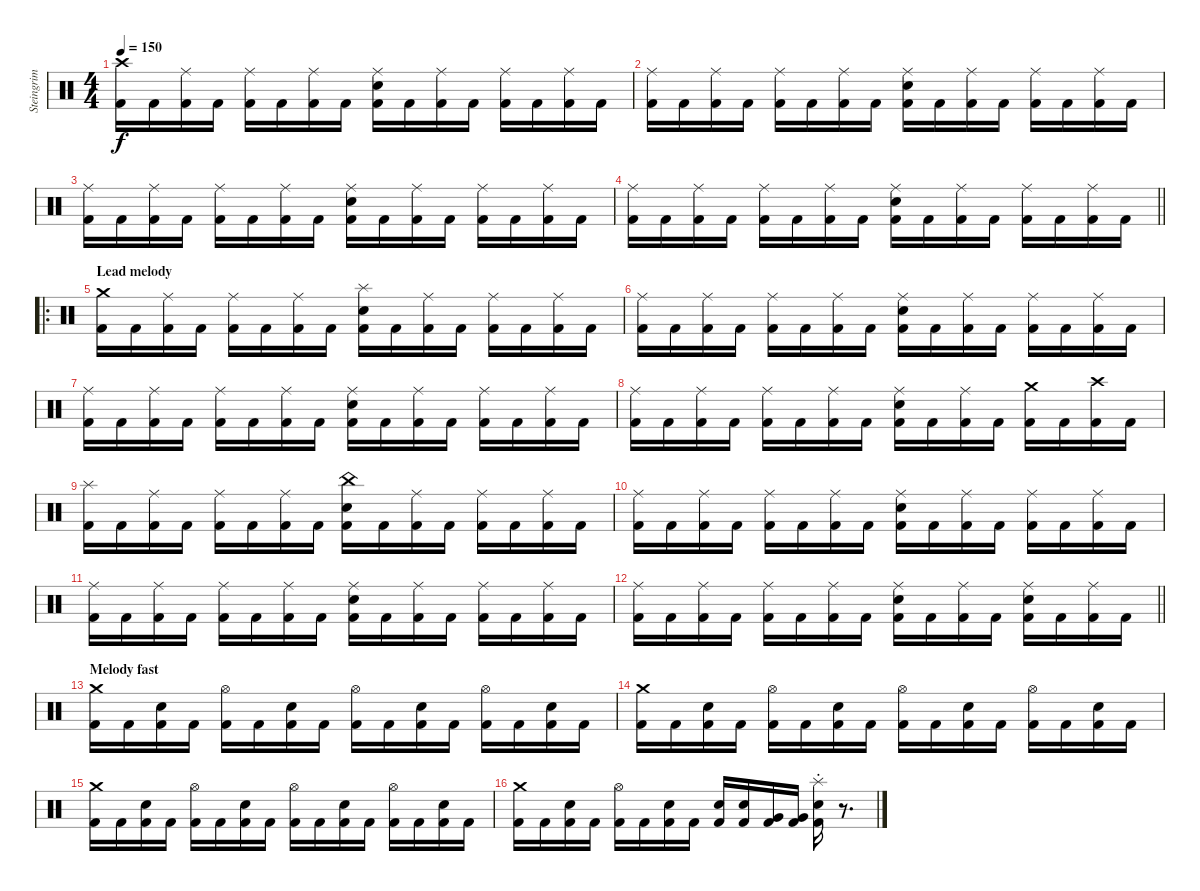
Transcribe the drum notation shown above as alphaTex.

\track ("Steingrim" "Steingrim") {instrument percussion}
\staff {score}
\articulation defaults
\ts (4 4)
\tempo 150
\clef neutral
\ks c
("Crash high (hit)" "Kick (hit) 2").16{dy f} "Kick (hit) 2".16 ("Ride (middle)" "Kick (hit) 2").16 "Kick (hit) 2".16 ("Ride (middle)" "Kick (hit) 2").16 "Kick (hit) 2".16 ("Ride (middle)" "Kick (hit) 2").16 "Kick (hit) 2".16 ("Ride (middle)" "Snare (hit) 2" "Kick (hit) 2").16 "Kick (hit) 2".16 ("Ride (middle)" "Kick (hit) 2").16 "Kick (hit) 2".16 ("Ride (middle)" "Kick (hit) 2").16 "Kick (hit) 2".16 ("Ride (middle)" "Kick (hit) 2").16 "Kick (hit) 2".16 |
("Ride (middle)" "Kick (hit) 2").16 "Kick (hit) 2".16 ("Ride (middle)" "Kick (hit) 2").16 "Kick (hit) 2".16 ("Ride (middle)" "Kick (hit) 2").16 "Kick (hit) 2".16 ("Ride (middle)" "Kick (hit) 2").16 "Kick (hit) 2".16 ("Ride (middle)" "Snare (hit) 2" "Kick (hit) 2").16 "Kick (hit) 2".16 ("Ride (middle)" "Kick (hit) 2").16 "Kick (hit) 2".16 ("Ride (middle)" "Kick (hit) 2").16 "Kick (hit) 2".16 ("Ride (middle)" "Kick (hit) 2").16 "Kick (hit) 2".16 |
("Ride (middle)" "Kick (hit) 2").16 "Kick (hit) 2".16 ("Ride (middle)" "Kick (hit) 2").16 "Kick (hit) 2".16 ("Ride (middle)" "Kick (hit) 2").16 "Kick (hit) 2".16 ("Ride (middle)" "Kick (hit) 2").16 "Kick (hit) 2".16 ("Ride (middle)" "Snare (hit) 2" "Kick (hit) 2").16 "Kick (hit) 2".16 ("Ride (middle)" "Kick (hit) 2").16 "Kick (hit) 2".16 ("Ride (middle)" "Kick (hit) 2").16 "Kick (hit) 2".16 ("Ride (middle)" "Kick (hit) 2").16 "Kick (hit) 2".16 |
\barLineRight lightlight
("Ride (middle)" "Kick (hit) 2").16 "Kick (hit) 2".16 ("Ride (middle)" "Kick (hit) 2").16 "Kick (hit) 2".16 ("Ride (middle)" "Kick (hit) 2").16 "Kick (hit) 2".16 ("Ride (middle)" "Kick (hit) 2").16 "Kick (hit) 2".16 ("Ride (middle)" "Snare (hit) 2" "Kick (hit) 2").16 "Kick (hit) 2".16 ("Ride (middle)" "Kick (hit) 2").16 "Kick (hit) 2".16 ("Ride (middle)" "Kick (hit) 2").16 "Kick (hit) 2".16 ("Ride (middle)" "Kick (hit) 2").16 "Kick (hit) 2".16 |
\ro
\section ("" "Lead melody")
("Crash medium (hit)" "Kick (hit) 2").16 "Kick (hit) 2".16 ("Ride (middle)" "Kick (hit) 2").16 "Kick (hit) 2".16 ("Ride (middle)" "Kick (hit) 2").16 "Kick (hit) 2".16 ("Ride (middle)" "Kick (hit) 2").16 "Kick (hit) 2".16 ("Splash (hit)" "Snare (hit) 2" "Kick (hit) 2").16 "Kick (hit) 2".16 ("Ride (middle)" "Kick (hit) 2").16 "Kick (hit) 2".16 ("Ride (middle)" "Kick (hit) 2").16 "Kick (hit) 2".16 ("Ride (middle)" "Kick (hit) 2").16 "Kick (hit) 2".16 |
("Ride (middle)" "Kick (hit) 2").16 "Kick (hit) 2".16 ("Ride (middle)" "Kick (hit) 2").16 "Kick (hit) 2".16 ("Ride (middle)" "Kick (hit) 2").16 "Kick (hit) 2".16 ("Ride (middle)" "Kick (hit) 2").16 "Kick (hit) 2".16 ("Ride (middle)" "Snare (hit) 2" "Kick (hit) 2").16 "Kick (hit) 2".16 ("Ride (middle)" "Kick (hit) 2").16 "Kick (hit) 2".16 ("Ride (middle)" "Kick (hit) 2").16 "Kick (hit) 2".16 ("Ride (middle)" "Kick (hit) 2").16 "Kick (hit) 2".16 |
("Ride (middle)" "Kick (hit) 2").16 "Kick (hit) 2".16 ("Ride (middle)" "Kick (hit) 2").16 "Kick (hit) 2".16 ("Ride (middle)" "Kick (hit) 2").16 "Kick (hit) 2".16 ("Ride (middle)" "Kick (hit) 2").16 "Kick (hit) 2".16 ("Ride (middle)" "Snare (hit) 2" "Kick (hit) 2").16 "Kick (hit) 2".16 ("Ride (middle)" "Kick (hit) 2").16 "Kick (hit) 2".16 ("Ride (middle)" "Kick (hit) 2").16 "Kick (hit) 2".16 ("Ride (middle)" "Kick (hit) 2").16 "Kick (hit) 2".16 |
("Ride (middle)" "Kick (hit) 2").16 "Kick (hit) 2".16 ("Ride (middle)" "Kick (hit) 2").16 "Kick (hit) 2".16 ("Ride (middle)" "Kick (hit) 2").16 "Kick (hit) 2".16 ("Ride (middle)" "Kick (hit) 2").16 "Kick (hit) 2".16 ("Ride (middle)" "Snare (hit) 2" "Kick (hit) 2").16 "Kick (hit) 2".16 ("Ride (middle)" "Kick (hit) 2").16 "Kick (hit) 2".16 ("Crash medium (hit)" "Kick (hit) 2").16 "Kick (hit) 2".16 ("Crash high (hit)" "Kick (hit) 2").16 "Kick (hit) 2".16 |
("Splash (hit)" "Kick (hit) 2").16 "Kick (hit) 2".16 ("Ride (middle)" "Kick (hit) 2").16 "Kick (hit) 2".16 ("Ride (middle)" "Kick (hit) 2").16 "Kick (hit) 2".16 ("Ride (middle)" "Kick (hit) 2").16 "Kick (hit) 2".16 ("China (hit)" "Snare (hit) 2" "Kick (hit) 2").16 "Kick (hit) 2".16 ("Ride (middle)" "Kick (hit) 2").16 "Kick (hit) 2".16 ("Ride (middle)" "Kick (hit) 2").16 "Kick (hit) 2".16 ("Ride (middle)" "Kick (hit) 2").16 "Kick (hit) 2".16 |
("Ride (middle)" "Kick (hit) 2").16 "Kick (hit) 2".16 ("Ride (middle)" "Kick (hit) 2").16 "Kick (hit) 2".16 ("Ride (middle)" "Kick (hit) 2").16 "Kick (hit) 2".16 ("Ride (middle)" "Kick (hit) 2").16 "Kick (hit) 2".16 ("Ride (middle)" "Snare (hit) 2" "Kick (hit) 2").16 "Kick (hit) 2".16 ("Ride (middle)" "Kick (hit) 2").16 "Kick (hit) 2".16 ("Ride (middle)" "Kick (hit) 2").16 "Kick (hit) 2".16 ("Ride (middle)" "Kick (hit) 2").16 "Kick (hit) 2".16 |
("Ride (middle)" "Kick (hit) 2").16 "Kick (hit) 2".16 ("Ride (middle)" "Kick (hit) 2").16 "Kick (hit) 2".16 ("Ride (middle)" "Kick (hit) 2").16 "Kick (hit) 2".16 ("Ride (middle)" "Kick (hit) 2").16 "Kick (hit) 2".16 ("Ride (middle)" "Snare (hit) 2" "Kick (hit) 2").16 "Kick (hit) 2".16 ("Ride (middle)" "Kick (hit) 2").16 "Kick (hit) 2".16 ("Ride (middle)" "Kick (hit) 2").16 "Kick (hit) 2".16 ("Ride (middle)" "Kick (hit) 2").16 "Kick (hit) 2".16 |
\barLineRight lightlight
("Ride (middle)" "Kick (hit) 2").16 "Kick (hit) 2".16 ("Ride (middle)" "Kick (hit) 2").16 "Kick (hit) 2".16 ("Ride (middle)" "Kick (hit) 2").16 "Kick (hit) 2".16 ("Ride (middle)" "Kick (hit) 2").16 "Kick (hit) 2".16 ("Ride (middle)" "Snare (hit) 2" "Kick (hit) 2").16 "Kick (hit) 2".16 ("Ride (middle)" "Kick (hit) 2").16 "Kick (hit) 2".16 ("Ride (middle)" "Snare (hit) 2" "Kick (hit) 2").16 "Kick (hit) 2".16 ("Ride (middle)" "Kick (hit) 2").16 "Kick (hit) 2".16 |
\section ("" "Melody fast")
("Crash medium (hit)" "Kick (hit) 2").16 "Kick (hit) 2".16 ("Snare (hit) 2" "Kick (hit) 2").16 "Kick (hit) 2".16 ("Hi-Hat (open)" "Kick (hit) 2").16 "Kick (hit) 2".16 ("Snare (hit) 2" "Kick (hit) 2").16 "Kick (hit) 2".16 ("Hi-Hat (open)" "Kick (hit) 2").16 "Kick (hit) 2".16 ("Snare (hit) 2" "Kick (hit) 2").16 "Kick (hit) 2".16 ("Hi-Hat (open)" "Kick (hit) 2").16 "Kick (hit) 2".16 ("Snare (hit) 2" "Kick (hit) 2").16 "Kick (hit) 2".16 |
("Crash medium (hit)" "Kick (hit) 2").16 "Kick (hit) 2".16 ("Snare (hit) 2" "Kick (hit) 2").16 "Kick (hit) 2".16 ("Hi-Hat (open)" "Kick (hit) 2").16 "Kick (hit) 2".16 ("Snare (hit) 2" "Kick (hit) 2").16 "Kick (hit) 2".16 ("Hi-Hat (open)" "Kick (hit) 2").16 "Kick (hit) 2".16 ("Snare (hit) 2" "Kick (hit) 2").16 "Kick (hit) 2".16 ("Hi-Hat (open)" "Kick (hit) 2").16 "Kick (hit) 2".16 ("Snare (hit) 2" "Kick (hit) 2").16 "Kick (hit) 2".16 |
("Crash medium (hit)" "Kick (hit) 2").16 "Kick (hit) 2".16 ("Snare (hit) 2" "Kick (hit) 2").16 "Kick (hit) 2".16 ("Hi-Hat (open)" "Kick (hit) 2").16 "Kick (hit) 2".16 ("Snare (hit) 2" "Kick (hit) 2").16 "Kick (hit) 2".16 ("Hi-Hat (open)" "Kick (hit) 2").16 "Kick (hit) 2".16 ("Snare (hit) 2" "Kick (hit) 2").16 "Kick (hit) 2".16 ("Hi-Hat (open)" "Kick (hit) 2").16 "Kick (hit) 2".16 ("Snare (hit) 2" "Kick (hit) 2").16 "Kick (hit) 2".16 |
("Crash medium (hit)" "Kick (hit) 2").16 "Kick (hit) 2".16 ("Snare (hit) 2" "Kick (hit) 2").16 "Kick (hit) 2".16 ("Hi-Hat (open)" "Kick (hit) 2").16 "Kick (hit) 2".16 ("Snare (hit) 2" "Kick (hit) 2").16 "Kick (hit) 2".16 ("Snare (hit) 2" "Kick (hit) 2").16 ("Snare (hit) 2" "Kick (hit) 2").16 ("Very Low Tom (hit)" "Kick (hit) 2").16 ("Very Low Tom (hit)" "Kick (hit) 2").16 ("Splash (hit)"{st} "Snare (hit) 2" "Kick (hit) 2").16 r.8{d}
